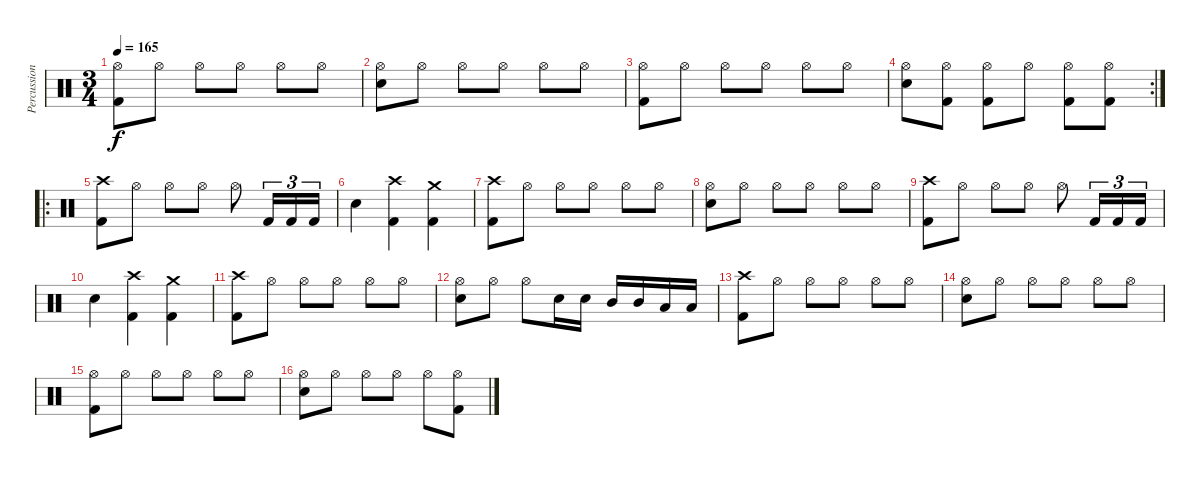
\track ("Percussion" "Percussion") {instrument percussion}
\staff {score}
\articulation defaults
\ts (3 4)
\tempo 165
\clef neutral
\ks c
("Hi-Hat (open)" "Kick (hit) 2").8{dy f} "Hi-Hat (open)".8 "Hi-Hat (open)".8 "Hi-Hat (open)".8 "Hi-Hat (open)".8 "Hi-Hat (open)".8 |
("Hi-Hat (open)" "Electric Snare (hit)").8 "Hi-Hat (open)".8 "Hi-Hat (open)".8 "Hi-Hat (open)".8 "Hi-Hat (open)".8 "Hi-Hat (open)".8 |
("Hi-Hat (open)" "Kick (hit) 2").8 "Hi-Hat (open)".8 "Hi-Hat (open)".8 "Hi-Hat (open)".8 "Hi-Hat (open)".8 "Hi-Hat (open)".8 |
\rc 2
("Hi-Hat (open)" "Electric Snare (hit)").8 ("Hi-Hat (open)" "Kick (hit) 2").8 ("Hi-Hat (open)" "Kick (hit) 2").8 "Hi-Hat (open)".8 ("Hi-Hat (open)" "Kick (hit) 2").8 ("Hi-Hat (open)" "Kick (hit) 2").8 |
\ro
("Crash high (hit)" "Kick (hit) 2").8 "Hi-Hat (open)".8 "Hi-Hat (open)".8 "Hi-Hat (open)".8 "Hi-Hat (open)".8 "Kick (hit) 2".16{tu (3 2)} "Kick (hit) 2".16{tu (3 2)} "Kick (hit) 2".16{tu (3 2)} |
"Electric Snare (hit)".4 ("Crash high (hit)" "Kick (hit) 2").4 ("Crash medium (hit)" "Kick (hit) 2").4 |
("Crash high (hit)" "Kick (hit) 2").8 "Hi-Hat (open)".8 "Hi-Hat (open)".8 "Hi-Hat (open)".8 "Hi-Hat (open)".8 "Hi-Hat (open)".8 |
("Hi-Hat (open)" "Electric Snare (hit)").8 "Hi-Hat (open)".8 "Hi-Hat (open)".8 "Hi-Hat (open)".8 "Hi-Hat (open)".8 "Hi-Hat (open)".8 |
("Crash high (hit)" "Kick (hit) 2").8 "Hi-Hat (open)".8 "Hi-Hat (open)".8 "Hi-Hat (open)".8 "Hi-Hat (open)".8 "Kick (hit) 2".16{tu (3 2)} "Kick (hit) 2".16{tu (3 2)} "Kick (hit) 2".16{tu (3 2)} |
"Electric Snare (hit)".4 ("Crash high (hit)" "Kick (hit) 2").4 ("Crash medium (hit)" "Kick (hit) 2").4 |
("Crash high (hit)" "Kick (hit) 2").8 "Hi-Hat (open)".8 "Hi-Hat (open)".8 "Hi-Hat (open)".8 "Hi-Hat (open)".8 "Hi-Hat (open)".8 |
("Hi-Hat (open)" "Electric Snare (hit)").8 "Hi-Hat (open)".8 "Hi-Hat (open)".8 "Electric Snare (hit)".16 "Electric Snare (hit)".16 "Mid Tom (hit)".16 "Mid Tom (hit)".16 "Low Tom (hit)".16 "Low Tom (hit)".16 |
("Crash high (hit)" "Kick (hit) 2").8 "Hi-Hat (open)".8 "Hi-Hat (open)".8 "Hi-Hat (open)".8 "Hi-Hat (open)".8 "Hi-Hat (open)".8 |
("Hi-Hat (open)" "Electric Snare (hit)").8 "Hi-Hat (open)".8 "Hi-Hat (open)".8 "Hi-Hat (open)".8 "Hi-Hat (open)".8 "Hi-Hat (open)".8 |
("Hi-Hat (open)" "Kick (hit) 2").8 "Hi-Hat (open)".8 "Hi-Hat (open)".8 "Hi-Hat (open)".8 "Hi-Hat (open)".8 "Hi-Hat (open)".8 |
("Hi-Hat (open)" "Electric Snare (hit)").8 "Hi-Hat (open)".8 "Hi-Hat (open)".8 "Hi-Hat (open)".8 "Hi-Hat (open)".8 ("Hi-Hat (open)" "Kick (hit) 2").8
